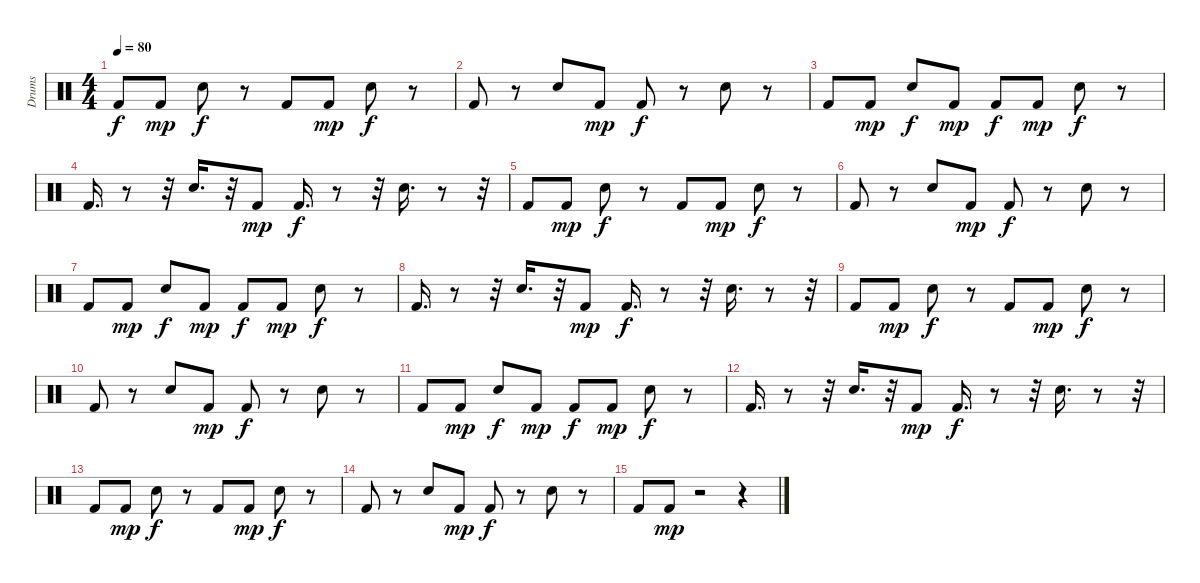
\track ("Drums" "Drums") {instrument percussion}
\staff {score}
\articulation defaults
\ts (4 4)
\tempo 80
\clef neutral
\ks c "Kick (hit) 2".8{dy f} "Kick (hit) 2".8{dy mp} "Electric Snare (hit)".8{dy f}
r.8 "Kick (hit) 2".8 "Kick (hit) 2".8{dy mp} "Electric Snare (hit)".8{dy f} r.8 |
"Kick (hit) 2".8 r.8 "Electric Snare (hit)".8 "Kick (hit) 2".8{dy mp} "Kick (hit) 2".8{dy f} r.8 "Electric Snare (hit)".8 r.8 |
"Kick (hit) 2".8 "Kick (hit) 2".8{dy mp} "Electric Snare (hit)".8{dy f} "Kick (hit) 2".8{dy mp} "Kick (hit) 2".8{dy f} "Kick (hit) 2".8{dy mp} "Electric Snare (hit)".8{dy f} r.8 |
"Kick (hit) 2".16{d} r.8 r.32 "Electric Snare (hit)".16{d} r.32 "Kick (hit) 2".8{dy mp} "Kick (hit) 2".16{d dy f} r.8 r.32 "Electric Snare (hit)".16{d} r.8 r.32 |
"Kick (hit) 2".8 "Kick (hit) 2".8{dy mp} "Electric Snare (hit)".8{dy f} r.8 "Kick (hit) 2".8 "Kick (hit) 2".8{dy mp} "Electric Snare (hit)".8{dy f} r.8 |
"Kick (hit) 2".8 r.8 "Electric Snare (hit)".8 "Kick (hit) 2".8{dy mp} "Kick (hit) 2".8{dy f} r.8 "Electric Snare (hit)".8 r.8 |
"Kick (hit) 2".8 "Kick (hit) 2".8{dy mp} "Electric Snare (hit)".8{dy f} "Kick (hit) 2".8{dy mp} "Kick (hit) 2".8{dy f} "Kick (hit) 2".8{dy mp} "Electric Snare (hit)".8{dy f} r.8 |
"Kick (hit) 2".16{d} r.8 r.32 "Electric Snare (hit)".16{d} r.32 "Kick (hit) 2".8{dy mp} "Kick (hit) 2".16{d dy f} r.8 r.32 "Electric Snare (hit)".16{d} r.8 r.32 |
"Kick (hit) 2".8 "Kick (hit) 2".8{dy mp} "Electric Snare (hit)".8{dy f} r.8 "Kick (hit) 2".8 "Kick (hit) 2".8{dy mp} "Electric Snare (hit)".8{dy f} r.8 |
"Kick (hit) 2".8 r.8 "Electric Snare (hit)".8 "Kick (hit) 2".8{dy mp} "Kick (hit) 2".8{dy f} r.8 "Electric Snare (hit)".8 r.8 |
"Kick (hit) 2".8 "Kick (hit) 2".8{dy mp} "Electric Snare (hit)".8{dy f} "Kick (hit) 2".8{dy mp} "Kick (hit) 2".8{dy f} "Kick (hit) 2".8{dy mp} "Electric Snare (hit)".8{dy f} r.8 |
"Kick (hit) 2".16{d} r.8 r.32 "Electric Snare (hit)".16{d} r.32 "Kick (hit) 2".8{dy mp} "Kick (hit) 2".16{d dy f} r.8 r.32 "Electric Snare (hit)".16{d} r.8 r.32 |
"Kick (hit) 2".8 "Kick (hit) 2".8{dy mp} "Electric Snare (hit)".8{dy f} r.8 "Kick (hit) 2".8{volume 11} "Kick (hit) 2".8{dy mp volume 11} "Electric Snare (hit)".8{dy f volume 10} r.8 |
"Kick (hit) 2".8{volume 8} r.8 "Electric Snare (hit)".8{volume 7} "Kick (hit) 2".8{dy mp volume 6} "Kick (hit) 2".8{dy f volume 6} r.8 "Electric Snare (hit)".8{volume 4} r.8 |
"Kick (hit) 2".8{volume 3} "Kick (hit) 2".8{dy mp volume 2} r.2 r.4
